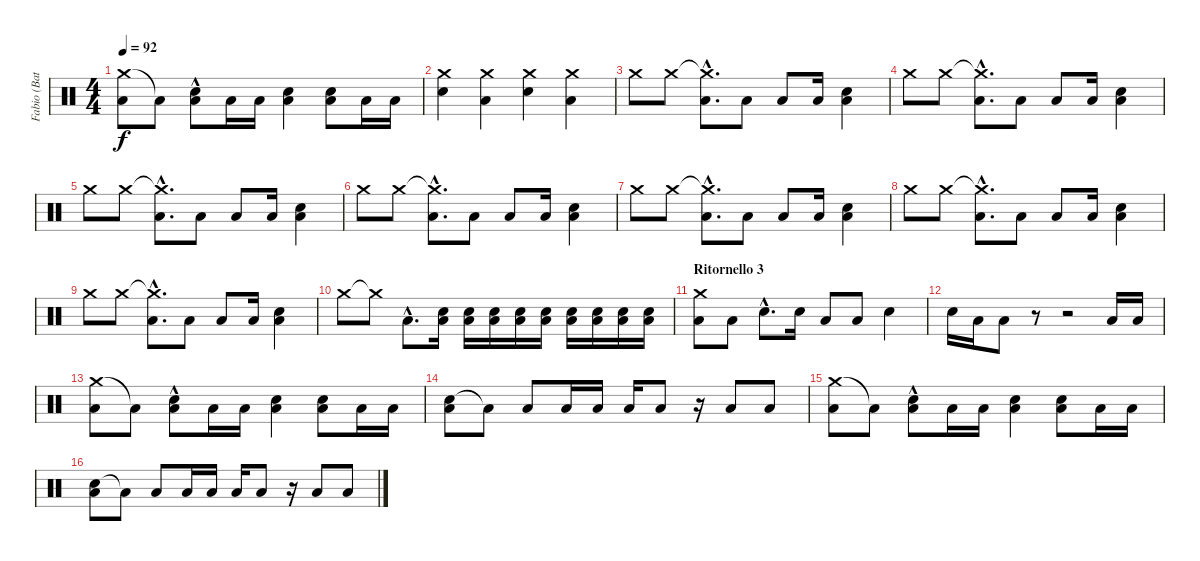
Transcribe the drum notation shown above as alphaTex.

\track ("Fabio (Batteria)" "Fabio (Bat") {instrument percussion}
\staff {score}
\articulation defaults
\ts (4 4)
\tempo 92
\clef neutral
\ks c
("Crash medium (hit)" "Low Tom (hit)").8{dy f} "Low Tom (hit)"{t}.8 ("Snare (hit) 2"{hac} "Low Tom (hit)").8 "Low Tom (hit)".16 "Low Tom (hit)".16 ("Snare (hit) 2" "Low Tom (hit)").4 ("Snare (hit) 2" "Low Tom (hit)").8 "Low Tom (hit)".16 "Low Tom (hit)".16 |
("Crash medium (hit)" "Snare (hit) 2").4 ("Crash medium (hit)" "Low Tom (hit)").4 ("Crash medium (hit)" "Snare (hit) 2").4 ("Crash medium (hit)" "Low Tom (hit)").4 |
"Crash medium (hit)".8 "Crash medium (hit)".8 ("Crash medium (hit)"{hac t} "Low Tom (hit)"{hac}).8{d} "Low Tom (hit)".8 "Low Tom (hit)".8 "Low Tom (hit)".16 ("Snare (hit) 2" "Low Tom (hit)").4 |
"Crash medium (hit)".8 "Crash medium (hit)".8 ("Crash medium (hit)"{hac t} "Low Tom (hit)"{hac}).8{d} "Low Tom (hit)".8 "Low Tom (hit)".8 "Low Tom (hit)".16 ("Snare (hit) 2" "Low Tom (hit)").4 |
"Crash medium (hit)".8 "Crash medium (hit)".8 ("Crash medium (hit)"{hac t} "Low Tom (hit)"{hac}).8{d} "Low Tom (hit)".8 "Low Tom (hit)".8 "Low Tom (hit)".16 ("Snare (hit) 2" "Low Tom (hit)").4 |
"Crash medium (hit)".8 "Crash medium (hit)".8 ("Crash medium (hit)"{hac t} "Low Tom (hit)"{hac}).8{d} "Low Tom (hit)".8 "Low Tom (hit)".8 "Low Tom (hit)".16 ("Snare (hit) 2" "Low Tom (hit)").4 |
"Crash medium (hit)".8 "Crash medium (hit)".8 ("Crash medium (hit)"{hac t} "Low Tom (hit)"{hac}).8{d} "Low Tom (hit)".8 "Low Tom (hit)".8 "Low Tom (hit)".16 ("Snare (hit) 2" "Low Tom (hit)").4 |
"Crash medium (hit)".8 "Crash medium (hit)".8 ("Crash medium (hit)"{hac t} "Low Tom (hit)"{hac}).8{d} "Low Tom (hit)".8 "Low Tom (hit)".8 "Low Tom (hit)".16 ("Snare (hit) 2" "Low Tom (hit)").4 |
"Crash medium (hit)".8 "Crash medium (hit)".8 ("Crash medium (hit)"{hac t} "Low Tom (hit)"{hac}).8{d} "Low Tom (hit)".8 "Low Tom (hit)".8 "Low Tom (hit)".16 ("Snare (hit) 2" "Low Tom (hit)").4 |
"Crash medium (hit)".8 "Crash medium (hit)"{t}.8 "Low Tom (hit)"{hac}.8{d} ("Snare (hit) 2" "Low Tom (hit)").16 ("Snare (hit) 2" "Low Tom (hit)").16 ("Snare (hit) 2" "Low Tom (hit)").16 ("Snare (hit) 2" "Low Tom (hit)").16 ("Snare (hit) 2" "Low Tom (hit)").16 ("Snare (hit) 2" "Low Tom (hit)").16 ("Snare (hit) 2" "Low Tom (hit)").16 ("Snare (hit) 2" "Low Tom (hit)").16 ("Snare (hit) 2" "Low Tom (hit)").16 |
\section ("" "Ritornello 3")
("Crash medium (hit)" "Low Tom (hit)").8 "Low Tom (hit)".8 "Snare (hit) 2"{hac}.8{d} "Snare (hit) 2".16 "Low Tom (hit)".8 "Low Tom (hit)".8 "Snare (hit) 2".4 |
"Snare (hit) 2".16 "Low Tom (hit)".16 "Low Tom (hit)".8 r.8 r.2 "Low Tom (hit)".16 "Low Tom (hit)".16 |
("Crash medium (hit)" "Low Tom (hit)").8 "Low Tom (hit)"{t}.8 ("Snare (hit) 2"{hac} "Low Tom (hit)").8 "Low Tom (hit)".16 "Low Tom (hit)".16 ("Snare (hit) 2" "Low Tom (hit)").4 ("Snare (hit) 2" "Low Tom (hit)").8 "Low Tom (hit)".16 "Low Tom (hit)".16 |
("Snare (hit) 2" "Low Tom (hit)").8 "Low Tom (hit)"{t}.8 "Low Tom (hit)".8 "Low Tom (hit)".16 "Low Tom (hit)".16 "Low Tom (hit)".16 "Low Tom (hit)".8 r.16 "Low Tom (hit)".8 "Low Tom (hit)".8 |
("Crash medium (hit)" "Low Tom (hit)").8 "Low Tom (hit)"{t}.8 ("Snare (hit) 2"{hac} "Low Tom (hit)").8 "Low Tom (hit)".16 "Low Tom (hit)".16 ("Snare (hit) 2" "Low Tom (hit)").4 ("Snare (hit) 2" "Low Tom (hit)").8 "Low Tom (hit)".16 "Low Tom (hit)".16 |
("Snare (hit) 2" "Low Tom (hit)").8 "Low Tom (hit)"{t}.8 "Low Tom (hit)".8 "Low Tom (hit)".16 "Low Tom (hit)".16 "Low Tom (hit)".16 "Low Tom (hit)".8 r.16 "Low Tom (hit)".8 "Low Tom (hit)".8
